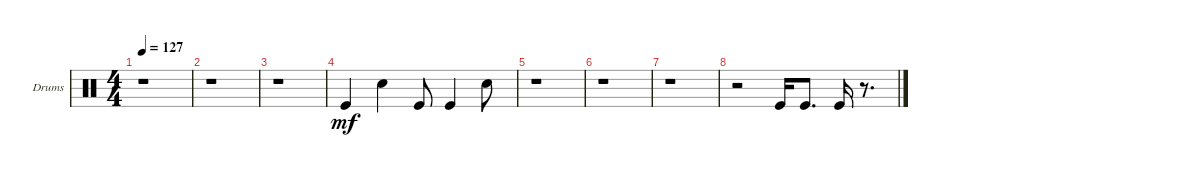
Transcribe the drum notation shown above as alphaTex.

\bracketExtendMode groupsimilarinstruments
\firstSystemTrackNameOrientation horizontal
\otherSystemsTrackNameOrientation horizontal
\track ("Drums" "Drums") {instrument percussion}
\staff {score}
\articulation defaults
\ts (4 4)
\tempo 127
\clef neutral
\ks c
r.1{dy mf} |
r.1 |
r.1 |
"Kick (hit)".4 "Snare (hit) 2".4 "Kick (hit)".8 "Kick (hit)".4 "Snare (hit) 2".8 |
r.1 |
r.1 |
r.1 |
r.2 "Kick (hit)".16 "Kick (hit)".8{d} "Kick (hit)".16 r.8{d}
